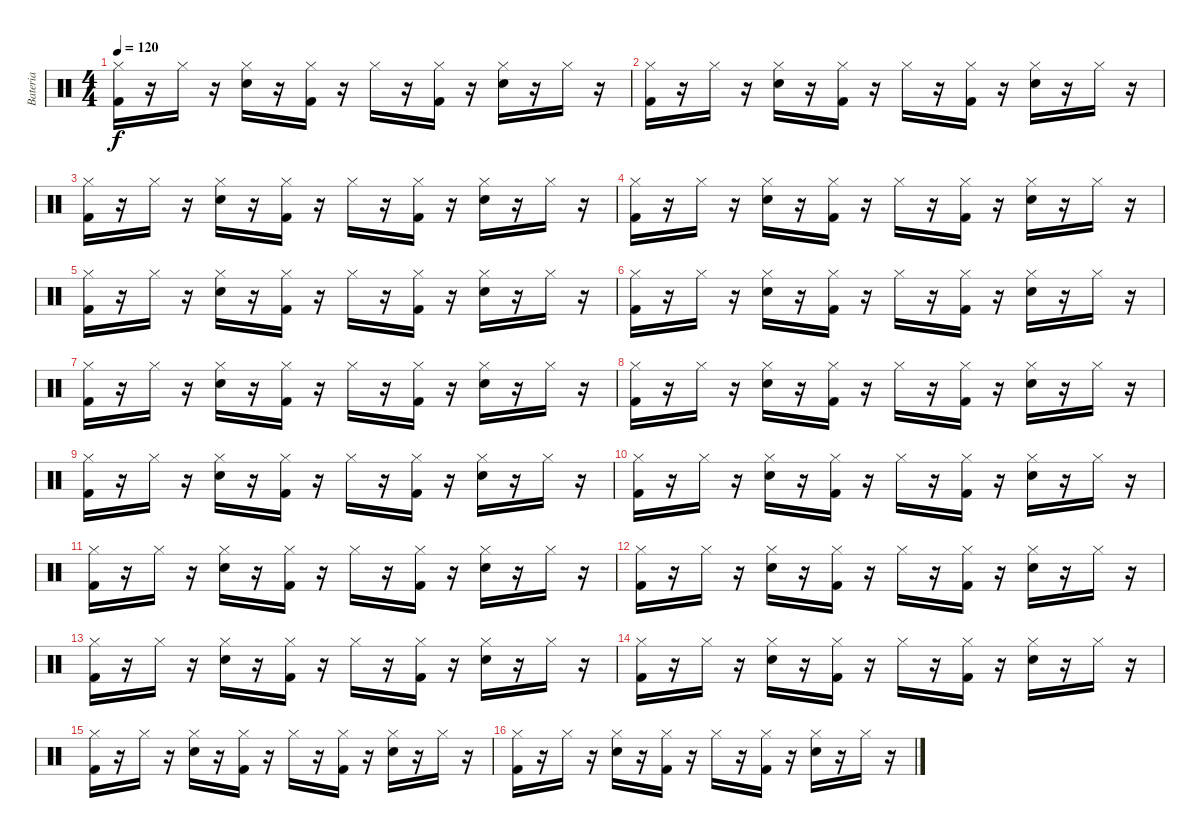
\track ("Bateria" "Bateria") {instrument percussion}
\staff {score}
\articulation defaults
\ts (4 4)
\tempo 120
\clef neutral
\ks c
("Hi-Hat (closed)" "Kick (hit) 2").16{dy f} r.16 "Hi-Hat (closed)".16 r.16 ("Hi-Hat (closed)" "Snare (hit) 2").16 r.16 ("Hi-Hat (closed)" "Kick (hit) 2").16 r.16 "Hi-Hat (closed)".16 r.16 ("Hi-Hat (closed)" "Kick (hit) 2").16 r.16 ("Hi-Hat (closed)" "Snare (hit) 2").16 r.16 "Hi-Hat (closed)".16 r.16 |
("Hi-Hat (closed)" "Kick (hit) 2").16 r.16 "Hi-Hat (closed)".16 r.16 ("Hi-Hat (closed)" "Snare (hit) 2").16 r.16 ("Hi-Hat (closed)" "Kick (hit) 2").16 r.16 "Hi-Hat (closed)".16 r.16 ("Hi-Hat (closed)" "Kick (hit) 2").16 r.16 ("Hi-Hat (closed)" "Snare (hit) 2").16 r.16 "Hi-Hat (closed)".16 r.16 |
("Hi-Hat (closed)" "Kick (hit) 2").16 r.16 "Hi-Hat (closed)".16 r.16 ("Hi-Hat (closed)" "Snare (hit) 2").16 r.16 ("Hi-Hat (closed)" "Kick (hit) 2").16 r.16 "Hi-Hat (closed)".16 r.16 ("Hi-Hat (closed)" "Kick (hit) 2").16 r.16 ("Hi-Hat (closed)" "Snare (hit) 2").16 r.16 "Hi-Hat (closed)".16 r.16 |
("Hi-Hat (closed)" "Kick (hit) 2").16 r.16 "Hi-Hat (closed)".16 r.16 ("Hi-Hat (closed)" "Snare (hit) 2").16 r.16 ("Hi-Hat (closed)" "Kick (hit) 2").16 r.16 "Hi-Hat (closed)".16 r.16 ("Hi-Hat (closed)" "Kick (hit) 2").16 r.16 ("Hi-Hat (closed)" "Snare (hit) 2").16 r.16 "Hi-Hat (closed)".16 r.16 |
("Hi-Hat (closed)" "Kick (hit) 2").16 r.16 "Hi-Hat (closed)".16 r.16 ("Hi-Hat (closed)" "Snare (hit) 2").16 r.16 ("Hi-Hat (closed)" "Kick (hit) 2").16 r.16 "Hi-Hat (closed)".16 r.16 ("Hi-Hat (closed)" "Kick (hit) 2").16 r.16 ("Hi-Hat (closed)" "Snare (hit) 2").16 r.16 "Hi-Hat (closed)".16 r.16 |
("Hi-Hat (closed)" "Kick (hit) 2").16 r.16 "Hi-Hat (closed)".16 r.16 ("Hi-Hat (closed)" "Snare (hit) 2").16 r.16 ("Hi-Hat (closed)" "Kick (hit) 2").16 r.16 "Hi-Hat (closed)".16 r.16 ("Hi-Hat (closed)" "Kick (hit) 2").16 r.16 ("Hi-Hat (closed)" "Snare (hit) 2").16 r.16 "Hi-Hat (closed)".16 r.16 |
("Hi-Hat (closed)" "Kick (hit) 2").16 r.16 "Hi-Hat (closed)".16 r.16 ("Hi-Hat (closed)" "Snare (hit) 2").16 r.16 ("Hi-Hat (closed)" "Kick (hit) 2").16 r.16 "Hi-Hat (closed)".16 r.16 ("Hi-Hat (closed)" "Kick (hit) 2").16 r.16 ("Hi-Hat (closed)" "Snare (hit) 2").16 r.16 "Hi-Hat (closed)".16 r.16 |
("Hi-Hat (closed)" "Kick (hit) 2").16 r.16 "Hi-Hat (closed)".16 r.16 ("Hi-Hat (closed)" "Snare (hit) 2").16 r.16 ("Hi-Hat (closed)" "Kick (hit) 2").16 r.16 "Hi-Hat (closed)".16 r.16 ("Hi-Hat (closed)" "Kick (hit) 2").16 r.16 ("Hi-Hat (closed)" "Snare (hit) 2").16 r.16 "Hi-Hat (closed)".16 r.16 |
("Hi-Hat (closed)" "Kick (hit) 2").16 r.16 "Hi-Hat (closed)".16 r.16 ("Hi-Hat (closed)" "Snare (hit) 2").16 r.16 ("Hi-Hat (closed)" "Kick (hit) 2").16 r.16 "Hi-Hat (closed)".16 r.16 ("Hi-Hat (closed)" "Kick (hit) 2").16 r.16 ("Hi-Hat (closed)" "Snare (hit) 2").16 r.16 "Hi-Hat (closed)".16 r.16 |
("Hi-Hat (closed)" "Kick (hit) 2").16 r.16 "Hi-Hat (closed)".16 r.16 ("Hi-Hat (closed)" "Snare (hit) 2").16 r.16 ("Hi-Hat (closed)" "Kick (hit) 2").16 r.16 "Hi-Hat (closed)".16 r.16 ("Hi-Hat (closed)" "Kick (hit) 2").16 r.16 ("Hi-Hat (closed)" "Snare (hit) 2").16 r.16 "Hi-Hat (closed)".16 r.16 |
("Hi-Hat (closed)" "Kick (hit) 2").16 r.16 "Hi-Hat (closed)".16 r.16 ("Hi-Hat (closed)" "Snare (hit) 2").16 r.16 ("Hi-Hat (closed)" "Kick (hit) 2").16 r.16 "Hi-Hat (closed)".16 r.16 ("Hi-Hat (closed)" "Kick (hit) 2").16 r.16 ("Hi-Hat (closed)" "Snare (hit) 2").16 r.16 "Hi-Hat (closed)".16 r.16 |
("Hi-Hat (closed)" "Kick (hit) 2").16 r.16 "Hi-Hat (closed)".16 r.16 ("Hi-Hat (closed)" "Snare (hit) 2").16 r.16 ("Hi-Hat (closed)" "Kick (hit) 2").16 r.16 "Hi-Hat (closed)".16 r.16 ("Hi-Hat (closed)" "Kick (hit) 2").16 r.16 ("Hi-Hat (closed)" "Snare (hit) 2").16 r.16 "Hi-Hat (closed)".16 r.16 |
("Hi-Hat (closed)" "Kick (hit) 2").16 r.16 "Hi-Hat (closed)".16 r.16 ("Hi-Hat (closed)" "Snare (hit) 2").16 r.16 ("Hi-Hat (closed)" "Kick (hit) 2").16 r.16 "Hi-Hat (closed)".16 r.16 ("Hi-Hat (closed)" "Kick (hit) 2").16 r.16 ("Hi-Hat (closed)" "Snare (hit) 2").16 r.16 "Hi-Hat (closed)".16 r.16 |
("Hi-Hat (closed)" "Kick (hit) 2").16 r.16 "Hi-Hat (closed)".16 r.16 ("Hi-Hat (closed)" "Snare (hit) 2").16 r.16 ("Hi-Hat (closed)" "Kick (hit) 2").16 r.16 "Hi-Hat (closed)".16 r.16 ("Hi-Hat (closed)" "Kick (hit) 2").16 r.16 ("Hi-Hat (closed)" "Snare (hit) 2").16 r.16 "Hi-Hat (closed)".16 r.16 |
("Hi-Hat (closed)" "Kick (hit) 2").16 r.16 "Hi-Hat (closed)".16 r.16 ("Hi-Hat (closed)" "Snare (hit) 2").16 r.16 ("Hi-Hat (closed)" "Kick (hit) 2").16 r.16 "Hi-Hat (closed)".16 r.16 ("Hi-Hat (closed)" "Kick (hit) 2").16 r.16 ("Hi-Hat (closed)" "Snare (hit) 2").16 r.16 "Hi-Hat (closed)".16 r.16 |
("Hi-Hat (closed)" "Kick (hit) 2").16 r.16 "Hi-Hat (closed)".16 r.16 ("Hi-Hat (closed)" "Snare (hit) 2").16 r.16 ("Hi-Hat (closed)" "Kick (hit) 2").16 r.16 "Hi-Hat (closed)".16 r.16 ("Hi-Hat (closed)" "Kick (hit) 2").16 r.16 ("Hi-Hat (closed)" "Snare (hit) 2").16 r.16 "Hi-Hat (closed)".16 r.16
